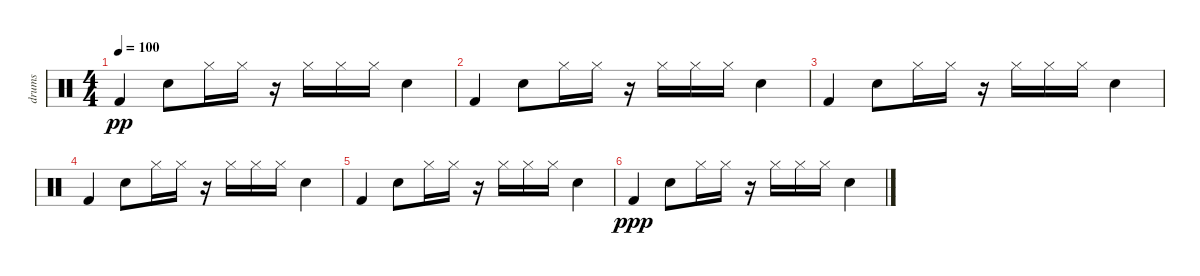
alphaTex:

\track ("drums" "drums") {instrument percussion}
\staff {score}
\articulation defaults
\ts (4 4)
\tempo 100
\clef neutral
\ks c "Kick (hit) 2".4{dy pp} "Electric Snare (hit)".8 "Hi-Hat (closed)".16 "Hi-Hat (closed)".16
r.16 "Hi-Hat (closed)".16 "Hi-Hat (closed)".16 "Hi-Hat (closed)".16 "Electric Snare (hit)".4 |
"Kick (hit) 2".4 "Electric Snare (hit)".8 "Hi-Hat (closed)".16 "Hi-Hat (closed)".16 r.16 "Hi-Hat (closed)".16 "Hi-Hat (closed)".16 "Hi-Hat (closed)".16 "Electric Snare (hit)".4 |
"Kick (hit) 2".4 "Electric Snare (hit)".8 "Hi-Hat (closed)".16 "Hi-Hat (closed)".16 r.16 "Hi-Hat (closed)".16 "Hi-Hat (closed)".16 "Hi-Hat (closed)".16 "Electric Snare (hit)".4 |
"Kick (hit) 2".4 "Electric Snare (hit)".8 "Hi-Hat (closed)".16 "Hi-Hat (closed)".16 r.16 "Hi-Hat (closed)".16 "Hi-Hat (closed)".16 "Hi-Hat (closed)".16 "Electric Snare (hit)".4 |
"Kick (hit) 2".4 "Electric Snare (hit)".8 "Hi-Hat (closed)".16 "Hi-Hat (closed)".16 r.16 "Hi-Hat (closed)".16 "Hi-Hat (closed)".16 "Hi-Hat (closed)".16 "Electric Snare (hit)".4 |
"Kick (hit) 2".4{dy ppp} "Electric Snare (hit)".8 "Hi-Hat (closed)".16 "Hi-Hat (closed)".16 r.16 "Hi-Hat (closed)".16 "Hi-Hat (closed)".16 "Hi-Hat (closed)".16 "Electric Snare (hit)".4
